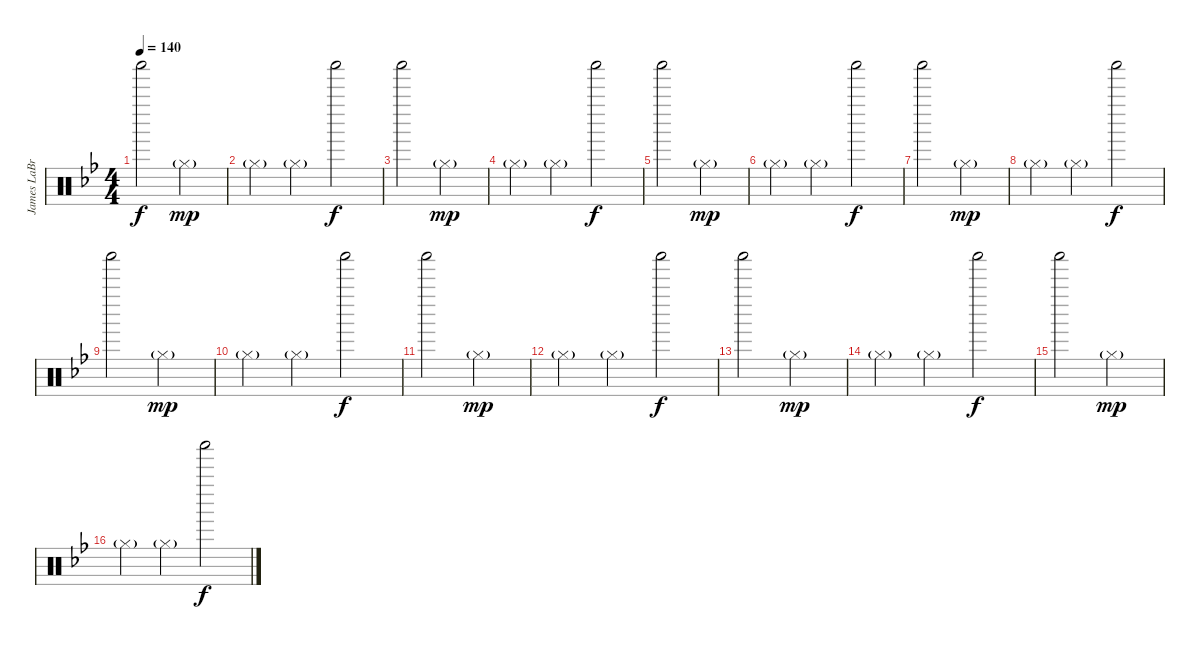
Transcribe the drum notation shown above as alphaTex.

\track ("James LaBrie Percussion" "James LaBr") {instrument percussion}
\staff {score}
\articulation defaults
\ts (4 4)
\section ("" "")
\tempo 140
\clef neutral
\ks bb "Shaker (hit)".2{dy f} "Hi-Hat (closed)"{g}.2{dy mp}
|
"Hi-Hat (closed)"{g}.4 "Hi-Hat (closed)"{g}.4 "Shaker (hit)".2{dy f} |
"Shaker (hit)".2 "Hi-Hat (closed)"{g}.2{dy mp} |
"Hi-Hat (closed)"{g}.4 "Hi-Hat (closed)"{g}.4 "Shaker (hit)".2{dy f} |
"Shaker (hit)".2 "Hi-Hat (closed)"{g}.2{dy mp} |
"Hi-Hat (closed)"{g}.4 "Hi-Hat (closed)"{g}.4 "Shaker (hit)".2{dy f} |
"Shaker (hit)".2 "Hi-Hat (closed)"{g}.2{dy mp} |
"Hi-Hat (closed)"{g}.4 "Hi-Hat (closed)"{g}.4 "Shaker (hit)".2{dy f} |
\section ("" "")
"Shaker (hit)".2 "Hi-Hat (closed)"{g}.2{dy mp} |
"Hi-Hat (closed)"{g}.4 "Hi-Hat (closed)"{g}.4 "Shaker (hit)".2{dy f} |
"Shaker (hit)".2 "Hi-Hat (closed)"{g}.2{dy mp} |
"Hi-Hat (closed)"{g}.4 "Hi-Hat (closed)"{g}.4 "Shaker (hit)".2{dy f} |
"Shaker (hit)".2 "Hi-Hat (closed)"{g}.2{dy mp} |
"Hi-Hat (closed)"{g}.4 "Hi-Hat (closed)"{g}.4 "Shaker (hit)".2{dy f} |
"Shaker (hit)".2 "Hi-Hat (closed)"{g}.2{dy mp} |
"Hi-Hat (closed)"{g}.4 "Hi-Hat (closed)"{g}.4 "Shaker (hit)".2{dy f}
